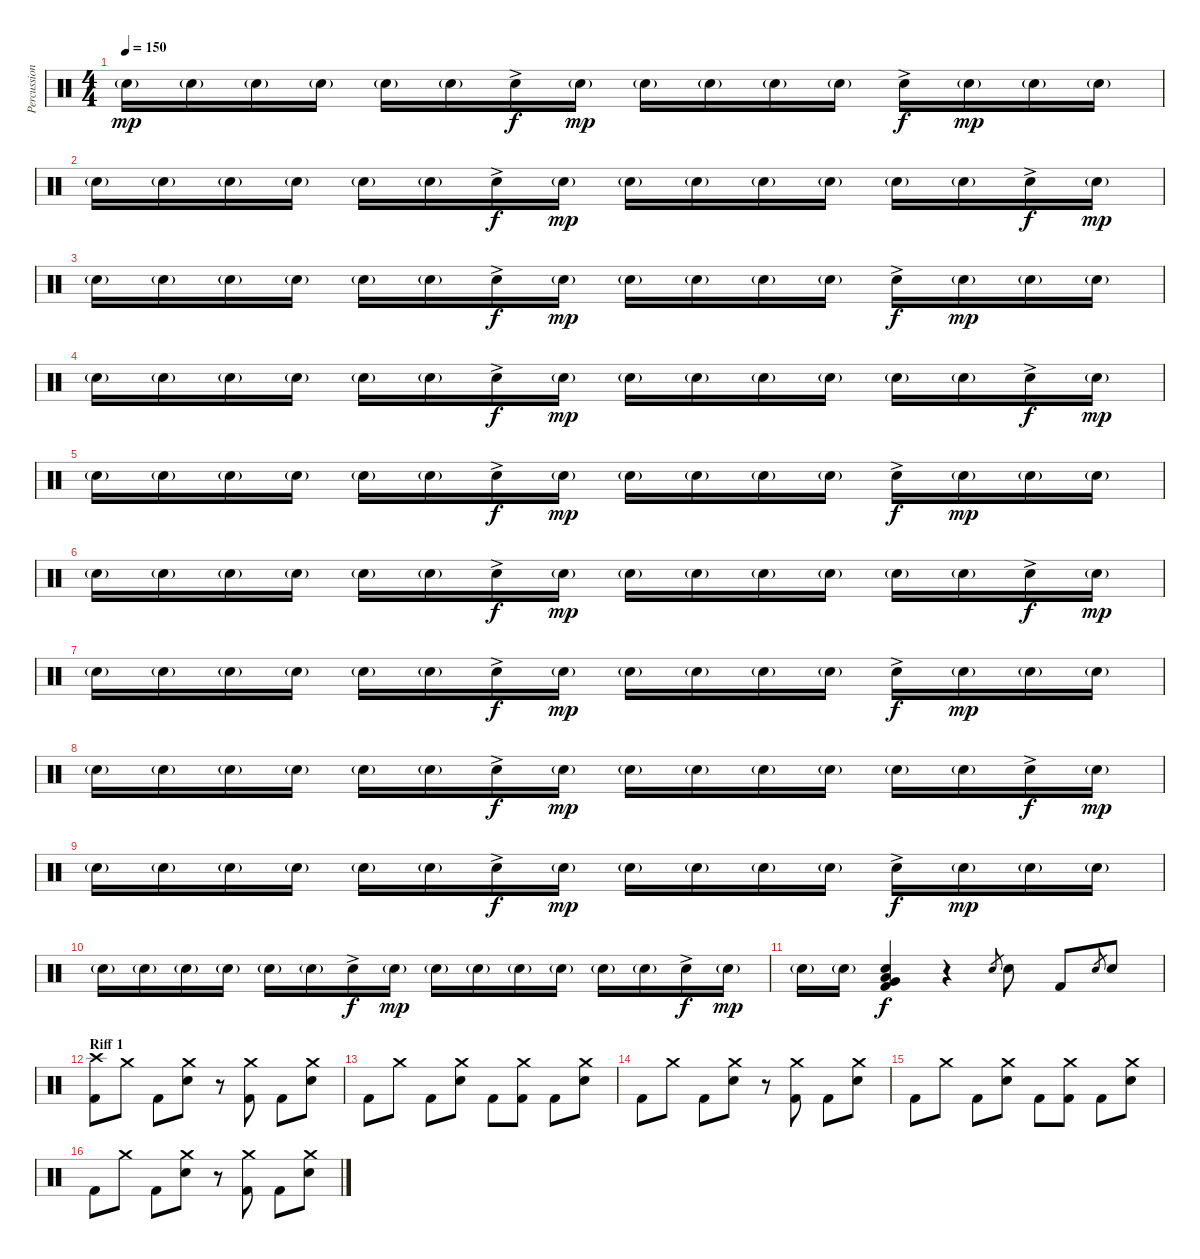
\track ("Percussion" "Percussion") {instrument percussion}
\staff {score}
\articulation defaults
\ts (4 4)
\tempo 150
\clef neutral
\ks c "Electric Snare (hit)"{g}.16{dy mp} "Electric Snare (hit)"{g}.16 "Electric Snare (hit)"{g}.16 "Electric Snare (hit)"{g}.16 "Electric Snare (hit)"{g}.16 "Electric Snare (hit)"{g}.16 "Electric Snare (hit)"{ac}.16{dy f} "Electric Snare (hit)"{g}.16{dy mp} "Electric Snare (hit)"{g}.16 "Electric Snare (hit)"{g}.16 "Electric Snare (hit)"{g}.16 "Electric Snare (hit)"{g}.16 "Electric Snare (hit)"{ac}.16{dy f} "Electric Snare (hit)"{g}.16{dy mp} "Electric Snare (hit)"{g}.16 "Electric Snare (hit)"{g}.16
|
"Electric Snare (hit)"{g}.16 "Electric Snare (hit)"{g}.16 "Electric Snare (hit)"{g}.16 "Electric Snare (hit)"{g}.16 "Electric Snare (hit)"{g}.16 "Electric Snare (hit)"{g}.16 "Electric Snare (hit)"{ac}.16{dy f} "Electric Snare (hit)"{g}.16{dy mp} "Electric Snare (hit)"{g}.16 "Electric Snare (hit)"{g}.16 "Electric Snare (hit)"{g}.16 "Electric Snare (hit)"{g}.16 "Electric Snare (hit)"{g}.16 "Electric Snare (hit)"{g}.16 "Electric Snare (hit)"{ac}.16{dy f} "Electric Snare (hit)"{g}.16{dy mp} |
"Electric Snare (hit)"{g}.16 "Electric Snare (hit)"{g}.16 "Electric Snare (hit)"{g}.16 "Electric Snare (hit)"{g}.16 "Electric Snare (hit)"{g}.16 "Electric Snare (hit)"{g}.16 "Electric Snare (hit)"{ac}.16{dy f} "Electric Snare (hit)"{g}.16{dy mp} "Electric Snare (hit)"{g}.16 "Electric Snare (hit)"{g}.16 "Electric Snare (hit)"{g}.16 "Electric Snare (hit)"{g}.16 "Electric Snare (hit)"{ac}.16{dy f} "Electric Snare (hit)"{g}.16{dy mp} "Electric Snare (hit)"{g}.16 "Electric Snare (hit)"{g}.16 |
"Electric Snare (hit)"{g}.16 "Electric Snare (hit)"{g}.16 "Electric Snare (hit)"{g}.16 "Electric Snare (hit)"{g}.16 "Electric Snare (hit)"{g}.16 "Electric Snare (hit)"{g}.16 "Electric Snare (hit)"{ac}.16{dy f} "Electric Snare (hit)"{g}.16{dy mp} "Electric Snare (hit)"{g}.16 "Electric Snare (hit)"{g}.16 "Electric Snare (hit)"{g}.16 "Electric Snare (hit)"{g}.16 "Electric Snare (hit)"{g}.16 "Electric Snare (hit)"{g}.16 "Electric Snare (hit)"{ac}.16{dy f} "Electric Snare (hit)"{g}.16{dy mp} |
"Electric Snare (hit)"{g}.16 "Electric Snare (hit)"{g}.16 "Electric Snare (hit)"{g}.16 "Electric Snare (hit)"{g}.16 "Electric Snare (hit)"{g}.16 "Electric Snare (hit)"{g}.16 "Electric Snare (hit)"{ac}.16{dy f} "Electric Snare (hit)"{g}.16{dy mp} "Electric Snare (hit)"{g}.16 "Electric Snare (hit)"{g}.16 "Electric Snare (hit)"{g}.16 "Electric Snare (hit)"{g}.16 "Electric Snare (hit)"{ac}.16{dy f} "Electric Snare (hit)"{g}.16{dy mp} "Electric Snare (hit)"{g}.16 "Electric Snare (hit)"{g}.16 |
"Electric Snare (hit)"{g}.16 "Electric Snare (hit)"{g}.16 "Electric Snare (hit)"{g}.16 "Electric Snare (hit)"{g}.16 "Electric Snare (hit)"{g}.16 "Electric Snare (hit)"{g}.16 "Electric Snare (hit)"{ac}.16{dy f} "Electric Snare (hit)"{g}.16{dy mp} "Electric Snare (hit)"{g}.16 "Electric Snare (hit)"{g}.16 "Electric Snare (hit)"{g}.16 "Electric Snare (hit)"{g}.16 "Electric Snare (hit)"{g}.16 "Electric Snare (hit)"{g}.16 "Electric Snare (hit)"{ac}.16{dy f} "Electric Snare (hit)"{g}.16{dy mp} |
"Electric Snare (hit)"{g}.16 "Electric Snare (hit)"{g}.16 "Electric Snare (hit)"{g}.16 "Electric Snare (hit)"{g}.16 "Electric Snare (hit)"{g}.16 "Electric Snare (hit)"{g}.16 "Electric Snare (hit)"{ac}.16{dy f} "Electric Snare (hit)"{g}.16{dy mp} "Electric Snare (hit)"{g}.16 "Electric Snare (hit)"{g}.16 "Electric Snare (hit)"{g}.16 "Electric Snare (hit)"{g}.16 "Electric Snare (hit)"{ac}.16{dy f} "Electric Snare (hit)"{g}.16{dy mp} "Electric Snare (hit)"{g}.16 "Electric Snare (hit)"{g}.16 |
"Electric Snare (hit)"{g}.16 "Electric Snare (hit)"{g}.16 "Electric Snare (hit)"{g}.16 "Electric Snare (hit)"{g}.16 "Electric Snare (hit)"{g}.16 "Electric Snare (hit)"{g}.16 "Electric Snare (hit)"{ac}.16{dy f} "Electric Snare (hit)"{g}.16{dy mp} "Electric Snare (hit)"{g}.16 "Electric Snare (hit)"{g}.16 "Electric Snare (hit)"{g}.16 "Electric Snare (hit)"{g}.16 "Electric Snare (hit)"{g}.16 "Electric Snare (hit)"{g}.16 "Electric Snare (hit)"{ac}.16{dy f} "Electric Snare (hit)"{g}.16{dy mp} |
"Electric Snare (hit)"{g}.16 "Electric Snare (hit)"{g}.16 "Electric Snare (hit)"{g}.16 "Electric Snare (hit)"{g}.16 "Electric Snare (hit)"{g}.16 "Electric Snare (hit)"{g}.16 "Electric Snare (hit)"{ac}.16{dy f} "Electric Snare (hit)"{g}.16{dy mp} "Electric Snare (hit)"{g}.16 "Electric Snare (hit)"{g}.16 "Electric Snare (hit)"{g}.16 "Electric Snare (hit)"{g}.16 "Electric Snare (hit)"{ac}.16{dy f} "Electric Snare (hit)"{g}.16{dy mp} "Electric Snare (hit)"{g}.16 "Electric Snare (hit)"{g}.16 |
"Electric Snare (hit)"{g}.16 "Electric Snare (hit)"{g}.16 "Electric Snare (hit)"{g}.16 "Electric Snare (hit)"{g}.16 "Electric Snare (hit)"{g}.16 "Electric Snare (hit)"{g}.16 "Electric Snare (hit)"{ac}.16{dy f} "Electric Snare (hit)"{g}.16{dy mp} "Electric Snare (hit)"{g}.16 "Electric Snare (hit)"{g}.16 "Electric Snare (hit)"{g}.16 "Electric Snare (hit)"{g}.16 "Electric Snare (hit)"{g}.16 "Electric Snare (hit)"{g}.16 "Electric Snare (hit)"{ac}.16{dy f} "Electric Snare (hit)"{g}.16{dy mp} |
"Electric Snare (hit)"{g}.16 "Electric Snare (hit)"{g}.16 ("Electric Snare (hit)" "Low Floor Tom (hit)" "Very Low Tom (hit)" "Kick (hit) 2").4{dy f} r.4 "Electric Snare (hit)".8{gr} "Electric Snare (hit)".8 "Kick (hit) 2".8 "Electric Snare (hit)".8{gr} "Electric Snare (hit)".8 |
\section ("" "Riff 1")
("Crash high (hit)" "Kick (hit) 2").8 "Crash medium (hit)".8 "Kick (hit) 2".8 ("Crash medium (hit)" "Electric Snare (hit)").8 r.8 ("Crash medium (hit)" "Kick (hit) 2").8 "Kick (hit) 2".8 ("Crash medium (hit)" "Electric Snare (hit)").8 |
"Kick (hit) 2".8 "Crash medium (hit)".8 "Kick (hit) 2".8 ("Crash medium (hit)" "Electric Snare (hit)").8 "Kick (hit) 2".8 ("Crash medium (hit)" "Kick (hit) 2").8 "Kick (hit) 2".8 ("Crash medium (hit)" "Electric Snare (hit)").8 |
"Kick (hit) 2".8 "Crash medium (hit)".8 "Kick (hit) 2".8 ("Crash medium (hit)" "Electric Snare (hit)").8 r.8 ("Crash medium (hit)" "Kick (hit) 2").8 "Kick (hit) 2".8 ("Crash medium (hit)" "Electric Snare (hit)").8 |
"Kick (hit) 2".8 "Crash medium (hit)".8 "Kick (hit) 2".8 ("Crash medium (hit)" "Electric Snare (hit)").8 "Kick (hit) 2".8 ("Crash medium (hit)" "Kick (hit) 2").8 "Kick (hit) 2".8 ("Crash medium (hit)" "Electric Snare (hit)").8 |
"Kick (hit) 2".8 "Crash medium (hit)".8 "Kick (hit) 2".8 ("Crash medium (hit)" "Electric Snare (hit)").8 r.8 ("Crash medium (hit)" "Kick (hit) 2").8 "Kick (hit) 2".8 ("Crash medium (hit)" "Electric Snare (hit)").8
